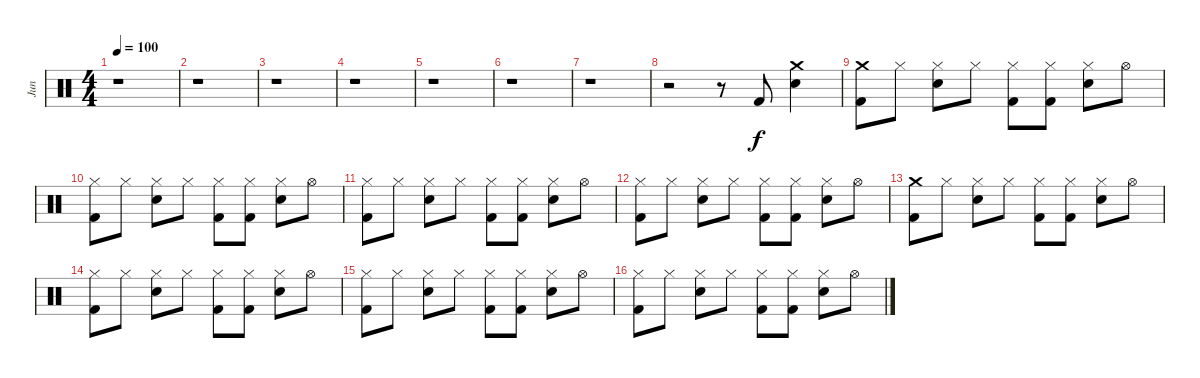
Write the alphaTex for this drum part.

\track ("Jun " "Jun ") {instrument percussion}
\staff {score}
\articulation defaults
\ts (4 4)
\tempo 100
\clef neutral
\ks c
r.1{dy f} |
r.1 |
r.1 |
r.1 |
r.1 |
r.1 |
r.1 |
r.2 r.8 "Kick (hit) 2".8 ("Crash medium (hit)" "Snare (hit) 2").4 |
("Crash medium (hit)" "Kick (hit) 2").8 "Hi-Hat (closed)".8 ("Hi-Hat (closed)" "Snare (hit) 2").8 "Hi-Hat (closed)".8 ("Hi-Hat (closed)" "Kick (hit) 2").8 ("Hi-Hat (closed)" "Kick (hit) 2").8 ("Hi-Hat (closed)" "Snare (hit) 2").8 "Hi-Hat (open)".8 |
("Hi-Hat (closed)" "Kick (hit) 2").8 "Hi-Hat (closed)".8 ("Hi-Hat (closed)" "Snare (hit) 2").8 "Hi-Hat (closed)".8 ("Hi-Hat (closed)" "Kick (hit) 2").8 ("Hi-Hat (closed)" "Kick (hit) 2").8 ("Hi-Hat (closed)" "Snare (hit) 2").8 "Hi-Hat (open)".8 |
("Hi-Hat (closed)" "Kick (hit) 2").8 "Hi-Hat (closed)".8 ("Hi-Hat (closed)" "Snare (hit) 2").8 "Hi-Hat (closed)".8 ("Hi-Hat (closed)" "Kick (hit) 2").8 ("Hi-Hat (closed)" "Kick (hit) 2").8 ("Hi-Hat (closed)" "Snare (hit) 2").8 "Hi-Hat (open)".8 |
("Hi-Hat (closed)" "Kick (hit) 2").8 "Hi-Hat (closed)".8 ("Hi-Hat (closed)" "Snare (hit) 2").8 "Hi-Hat (closed)".8 ("Hi-Hat (closed)" "Kick (hit) 2").8 ("Hi-Hat (closed)" "Kick (hit) 2").8 ("Hi-Hat (closed)" "Snare (hit) 2").8 "Hi-Hat (open)".8 |
("Crash medium (hit)" "Kick (hit) 2").8 "Hi-Hat (closed)".8 ("Hi-Hat (closed)" "Snare (hit) 2").8 "Hi-Hat (closed)".8 ("Hi-Hat (closed)" "Kick (hit) 2").8 ("Hi-Hat (closed)" "Kick (hit) 2").8 ("Hi-Hat (closed)" "Snare (hit) 2").8 "Hi-Hat (open)".8 |
("Hi-Hat (closed)" "Kick (hit) 2").8 "Hi-Hat (closed)".8 ("Hi-Hat (closed)" "Snare (hit) 2").8 "Hi-Hat (closed)".8 ("Hi-Hat (closed)" "Kick (hit) 2").8 ("Hi-Hat (closed)" "Kick (hit) 2").8 ("Hi-Hat (closed)" "Snare (hit) 2").8 "Hi-Hat (open)".8 |
("Hi-Hat (closed)" "Kick (hit) 2").8 "Hi-Hat (closed)".8 ("Hi-Hat (closed)" "Snare (hit) 2").8 "Hi-Hat (closed)".8 ("Hi-Hat (closed)" "Kick (hit) 2").8 ("Hi-Hat (closed)" "Kick (hit) 2").8 ("Hi-Hat (closed)" "Snare (hit) 2").8 "Hi-Hat (open)".8 |
("Hi-Hat (closed)" "Kick (hit) 2").8 "Hi-Hat (closed)".8 ("Hi-Hat (closed)" "Snare (hit) 2").8 "Hi-Hat (closed)".8 ("Hi-Hat (closed)" "Kick (hit) 2").8 ("Hi-Hat (closed)" "Kick (hit) 2").8 ("Hi-Hat (closed)" "Snare (hit) 2").8 "Hi-Hat (open)".8
